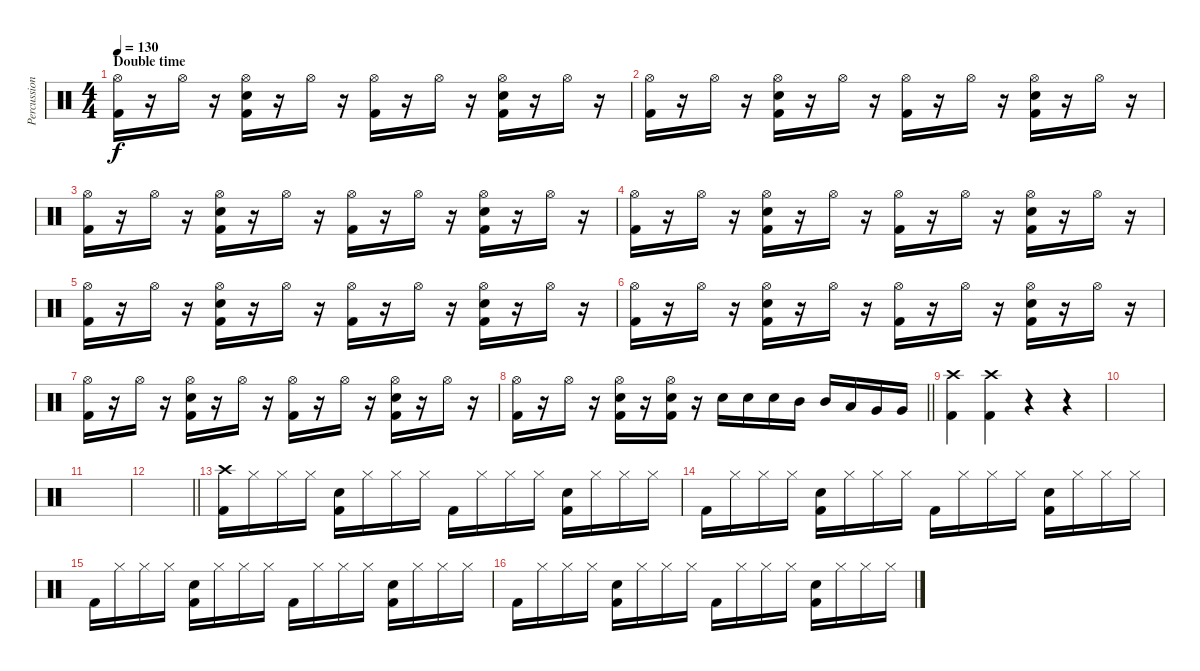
\track ("Percussion" "Percussion") {instrument percussion}
\staff {score}
\articulation defaults
\ts (4 4)
\section ("" "Double time")
\tempo 130
\clef neutral
\ks c
("Hi-Hat (open)" "Kick (hit) 2").16{dy f} r.16 "Hi-Hat (open)".16 r.16 ("Hi-Hat (open)" "Electric Snare (hit)" "Kick (hit) 2").16 r.16 "Hi-Hat (open)".16 r.16 ("Hi-Hat (open)" "Kick (hit) 2").16 r.16 "Hi-Hat (open)".16 r.16 ("Hi-Hat (open)" "Electric Snare (hit)" "Kick (hit) 2").16 r.16 "Hi-Hat (open)".16 r.16 |
("Hi-Hat (open)" "Kick (hit) 2").16 r.16 "Hi-Hat (open)".16 r.16 ("Hi-Hat (open)" "Electric Snare (hit)" "Kick (hit) 2").16 r.16 "Hi-Hat (open)".16 r.16 ("Hi-Hat (open)" "Kick (hit) 2").16 r.16 "Hi-Hat (open)".16 r.16 ("Hi-Hat (open)" "Electric Snare (hit)" "Kick (hit) 2").16 r.16 "Hi-Hat (open)".16 r.16 |
("Hi-Hat (open)" "Kick (hit) 2").16 r.16 "Hi-Hat (open)".16 r.16 ("Hi-Hat (open)" "Electric Snare (hit)" "Kick (hit) 2").16 r.16 "Hi-Hat (open)".16 r.16 ("Hi-Hat (open)" "Kick (hit) 2").16 r.16 "Hi-Hat (open)".16 r.16 ("Hi-Hat (open)" "Electric Snare (hit)" "Kick (hit) 2").16 r.16 "Hi-Hat (open)".16 r.16 |
("Hi-Hat (open)" "Kick (hit) 2").16 r.16 "Hi-Hat (open)".16 r.16 ("Hi-Hat (open)" "Electric Snare (hit)" "Kick (hit) 2").16 r.16 "Hi-Hat (open)".16 r.16 ("Hi-Hat (open)" "Kick (hit) 2").16 r.16 "Hi-Hat (open)".16 r.16 ("Hi-Hat (open)" "Electric Snare (hit)" "Kick (hit) 2").16 r.16 "Hi-Hat (open)".16 r.16 |
("Hi-Hat (open)" "Kick (hit) 2").16 r.16 "Hi-Hat (open)".16 r.16 ("Hi-Hat (open)" "Electric Snare (hit)" "Kick (hit) 2").16 r.16 "Hi-Hat (open)".16 r.16 ("Hi-Hat (open)" "Kick (hit) 2").16 r.16 "Hi-Hat (open)".16 r.16 ("Hi-Hat (open)" "Electric Snare (hit)" "Kick (hit) 2").16 r.16 "Hi-Hat (open)".16 r.16 |
("Hi-Hat (open)" "Kick (hit) 2").16 r.16 "Hi-Hat (open)".16 r.16 ("Hi-Hat (open)" "Electric Snare (hit)" "Kick (hit) 2").16 r.16 "Hi-Hat (open)".16 r.16 ("Hi-Hat (open)" "Kick (hit) 2").16 r.16 "Hi-Hat (open)".16 r.16 ("Hi-Hat (open)" "Electric Snare (hit)" "Kick (hit) 2").16 r.16 "Hi-Hat (open)".16 r.16 |
("Hi-Hat (open)" "Kick (hit) 2").16 r.16 "Hi-Hat (open)".16 r.16 ("Hi-Hat (open)" "Electric Snare (hit)" "Kick (hit) 2").16 r.16 "Hi-Hat (open)".16 r.16 ("Hi-Hat (open)" "Kick (hit) 2").16 r.16 "Hi-Hat (open)".16 r.16 ("Hi-Hat (open)" "Electric Snare (hit)" "Kick (hit) 2").16 r.16 "Hi-Hat (open)".16 r.16 |
\barLineRight lightlight
("Hi-Hat (open)" "Kick (hit) 2").16 r.16 "Hi-Hat (open)".16 r.16 ("Hi-Hat (open)" "Electric Snare (hit)" "Kick (hit) 2").16 r.16 ("Hi-Hat (open)" "Electric Snare (hit)" "Kick (hit) 2").16 r.16 "Electric Snare (hit)".16 "Electric Snare (hit)".16 "Electric Snare (hit)".16 "Mid Tom (hit)".16 "Mid Tom (hit)".16 "Low Tom (hit)".16 "Very Low Tom (hit)".16 "Very Low Tom (hit)".16 |
("Crash high (hit)" "Kick (hit) 2").4 ("Crash high (hit)" "Kick (hit) 2").4 r.4 r.4 |
|
|
\barLineRight lightlight
|
("Crash high (hit)" "Kick (hit) 2").16 "Hi-Hat (closed)".16 "Hi-Hat (closed)".16 "Hi-Hat (closed)".16 ("Electric Snare (hit)" "Kick (hit) 2").16 "Hi-Hat (closed)".16 "Hi-Hat (closed)".16 "Hi-Hat (closed)".16 "Kick (hit) 2".16 "Hi-Hat (closed)".16 "Hi-Hat (closed)".16 "Hi-Hat (closed)".16 ("Electric Snare (hit)" "Kick (hit) 2").16 "Hi-Hat (closed)".16 "Hi-Hat (closed)".16 "Hi-Hat (closed)".16 |
"Kick (hit) 2".16 "Hi-Hat (closed)".16 "Hi-Hat (closed)".16 "Hi-Hat (closed)".16 ("Electric Snare (hit)" "Kick (hit) 2").16 "Hi-Hat (closed)".16 "Hi-Hat (closed)".16 "Hi-Hat (closed)".16 "Kick (hit) 2".16 "Hi-Hat (closed)".16 "Hi-Hat (closed)".16 "Hi-Hat (closed)".16 ("Electric Snare (hit)" "Kick (hit) 2").16 "Hi-Hat (closed)".16 "Hi-Hat (closed)".16 "Hi-Hat (closed)".16 |
"Kick (hit) 2".16 "Hi-Hat (closed)".16 "Hi-Hat (closed)".16 "Hi-Hat (closed)".16 ("Electric Snare (hit)" "Kick (hit) 2").16 "Hi-Hat (closed)".16 "Hi-Hat (closed)".16 "Hi-Hat (closed)".16 "Kick (hit) 2".16 "Hi-Hat (closed)".16 "Hi-Hat (closed)".16 "Hi-Hat (closed)".16 ("Electric Snare (hit)" "Kick (hit) 2").16 "Hi-Hat (closed)".16 "Hi-Hat (closed)".16 "Hi-Hat (closed)".16 |
"Kick (hit) 2".16 "Hi-Hat (closed)".16 "Hi-Hat (closed)".16 "Hi-Hat (closed)".16 ("Electric Snare (hit)" "Kick (hit) 2").16 "Hi-Hat (closed)".16 "Hi-Hat (closed)".16 "Hi-Hat (closed)".16 "Kick (hit) 2".16 "Hi-Hat (closed)".16 "Hi-Hat (closed)".16 "Hi-Hat (closed)".16 ("Electric Snare (hit)" "Kick (hit) 2").16 "Hi-Hat (closed)".16 "Hi-Hat (closed)".16 "Hi-Hat (closed)".16
